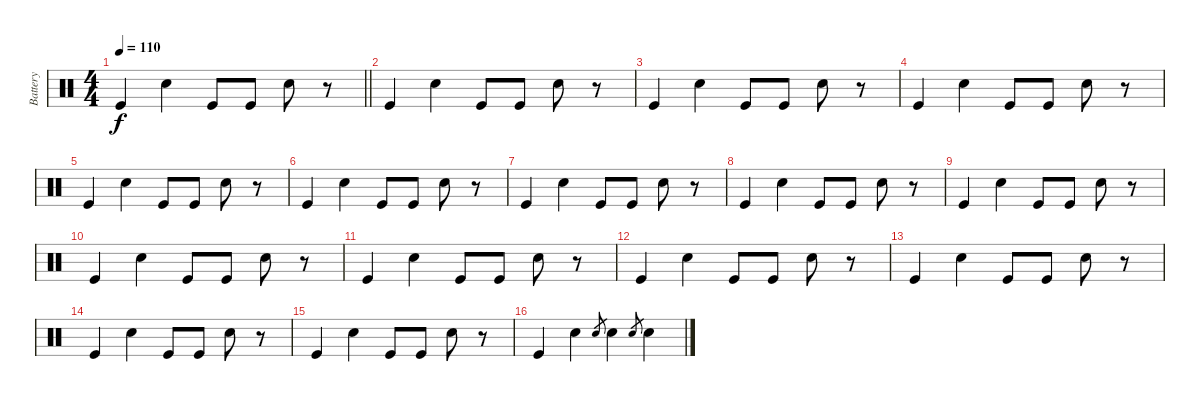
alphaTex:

\track ("Battery" "Battery") {instrument percussion}
\staff {score}
\articulation defaults
\ts (4 4)
\tempo 110
\clef neutral
\barLineRight lightlight
\ks c "Kick (hit)".4{dy f} "Snare (hit) 2".4 "Kick (hit)".8 "Kick (hit)".8 "Snare (hit) 2".8
r.8 |
"Kick (hit)".4 "Snare (hit) 2".4 "Kick (hit)".8 "Kick (hit)".8 "Snare (hit) 2".8 r.8 |
"Kick (hit)".4 "Snare (hit) 2".4 "Kick (hit)".8 "Kick (hit)".8 "Snare (hit) 2".8 r.8 |
"Kick (hit)".4 "Snare (hit) 2".4 "Kick (hit)".8 "Kick (hit)".8 "Snare (hit) 2".8 r.8 |
"Kick (hit)".4 "Snare (hit) 2".4 "Kick (hit)".8 "Kick (hit)".8 "Snare (hit) 2".8 r.8 |
"Kick (hit)".4 "Snare (hit) 2".4 "Kick (hit)".8 "Kick (hit)".8 "Snare (hit) 2".8 r.8 |
"Kick (hit)".4 "Snare (hit) 2".4 "Kick (hit)".8 "Kick (hit)".8 "Snare (hit) 2".8 r.8 |
"Kick (hit)".4 "Snare (hit) 2".4 "Kick (hit)".8 "Kick (hit)".8 "Snare (hit) 2".8 r.8 |
"Kick (hit)".4 "Snare (hit) 2".4 "Kick (hit)".8 "Kick (hit)".8 "Snare (hit) 2".8 r.8 |
"Kick (hit)".4 "Snare (hit) 2".4 "Kick (hit)".8 "Kick (hit)".8 "Snare (hit) 2".8 r.8 |
"Kick (hit)".4 "Snare (hit) 2".4 "Kick (hit)".8 "Kick (hit)".8 "Snare (hit) 2".8 r.8 |
"Kick (hit)".4 "Snare (hit) 2".4 "Kick (hit)".8 "Kick (hit)".8 "Snare (hit) 2".8 r.8 |
"Kick (hit)".4 "Snare (hit) 2".4 "Kick (hit)".8 "Kick (hit)".8 "Snare (hit) 2".8 r.8 |
"Kick (hit)".4 "Snare (hit) 2".4 "Kick (hit)".8 "Kick (hit)".8 "Snare (hit) 2".8 r.8 |
"Kick (hit)".4 "Snare (hit) 2".4 "Kick (hit)".8 "Kick (hit)".8 "Snare (hit) 2".8 r.8 |
"Kick (hit)".4 "Snare (hit) 2".4 "Snare (hit) 2".8{gr} "Snare (hit) 2".4 "Snare (hit) 2".8{gr} "Snare (hit) 2".4
